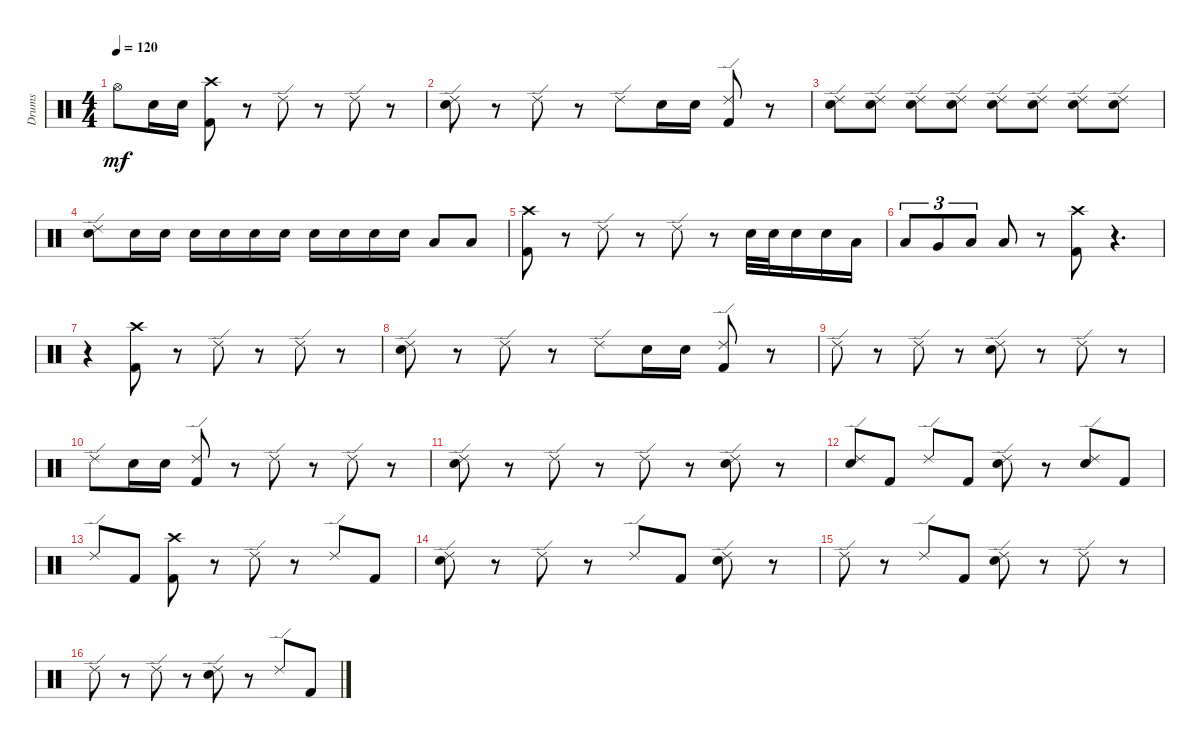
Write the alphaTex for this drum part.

\track ("Drums" "Drums") {instrument percussion}
\staff {score}
\articulation defaults
\ts (4 4)
\tempo 120
\clef neutral
\ks c "Hi-Hat (open)".8{dy mf} "Electric Snare (hit)".16 "Electric Snare (hit)".16
("Kick (hit) 2" "Crash high (hit)").8 r.8 "Ride (edge) 2".8 r.8 "Ride (edge) 2".8 r.8 |
("Electric Snare (hit)" "Ride (edge) 2").8 r.8 "Ride (edge) 2".8 r.8 "Ride (edge) 2".8 "Electric Snare (hit)".16 "Electric Snare (hit)".16 ("Kick (hit) 2" "Ride (edge) 2").8 r.8 |
("Electric Snare (hit)" "Ride (edge) 2").8 ("Electric Snare (hit)" "Ride (edge) 2").8 ("Electric Snare (hit)" "Ride (edge) 2").8 ("Electric Snare (hit)" "Ride (edge) 2").8 ("Electric Snare (hit)" "Ride (edge) 2").8 ("Electric Snare (hit)" "Ride (edge) 2").8 ("Electric Snare (hit)" "Ride (edge) 2").8 ("Electric Snare (hit)" "Ride (edge) 2").8 |
("Electric Snare (hit)" "Ride (edge) 2").8 "Electric Snare (hit)".16 "Electric Snare (hit)".16 "Electric Snare (hit)".16 "Electric Snare (hit)".16 "Electric Snare (hit)".16 "Electric Snare (hit)".16 "Electric Snare (hit)".16 "Electric Snare (hit)".16 "Electric Snare (hit)".16 "Electric Snare (hit)".16 "Low Tom (hit)".8 "Low Tom (hit)".8 |
("Kick (hit) 2" "Crash high (hit)").8 r.8 "Ride (edge) 2".8 r.8 "Ride (edge) 2".8 r.8 "Electric Snare (hit)".32 "Electric Snare (hit)".32 "Electric Snare (hit)".16 "Electric Snare (hit)".16 "Low Tom (hit)".16 |
"Low Tom (hit)".8{tu (3 2)} "Very Low Tom (hit)".8{tu (3 2)} "Low Floor Tom (hit)".8{tu (3 2)} "Low Floor Tom (hit)".8 r.8 ("Kick (hit) 2" "Crash high (hit)").8 r.4{d} |
r.4 ("Kick (hit) 2" "Crash high (hit)").8 r.8 "Ride (edge) 2".8 r.8 "Ride (edge) 2".8 r.8 |
("Electric Snare (hit)" "Ride (edge) 2").8 r.8 "Ride (edge) 2".8 r.8 "Ride (edge) 2".8 "Electric Snare (hit)".16 "Electric Snare (hit)".16 ("Kick (hit) 2" "Ride (edge) 2").8 r.8 |
"Ride (edge) 2".8 r.8 "Ride (edge) 2".8 r.8 ("Electric Snare (hit)" "Ride (edge) 2").8 r.8 "Ride (edge) 2".8 r.8 |
"Ride (edge) 2".8 "Electric Snare (hit)".16 "Electric Snare (hit)".16 ("Kick (hit) 2" "Ride (edge) 2").8 r.8 "Ride (edge) 2".8 r.8 "Ride (edge) 2".8 r.8 |
("Electric Snare (hit)" "Ride (edge) 2").8 r.8 "Ride (edge) 2".8 r.8 "Ride (edge) 2".8 r.8 ("Electric Snare (hit)" "Ride (edge) 2").8 r.8 |
("Electric Snare (hit)" "Ride (edge) 2").8 "Kick (hit) 2".8 "Ride (edge) 2".8 "Kick (hit) 2".8 ("Electric Snare (hit)" "Ride (edge) 2").8 r.8 ("Electric Snare (hit)" "Ride (edge) 2").8 "Kick (hit) 2".8 |
"Ride (edge) 2".8 "Kick (hit) 2".8 ("Kick (hit) 2" "Crash high (hit)").8 r.8 "Ride (edge) 2".8 r.8 "Ride (edge) 2".8 "Kick (hit) 2".8 |
("Electric Snare (hit)" "Ride (edge) 2").8 r.8 "Ride (edge) 2".8 r.8 "Ride (edge) 2".8 "Kick (hit) 2".8 ("Electric Snare (hit)" "Ride (edge) 2").8 r.8 |
"Ride (edge) 2".8 r.8 "Ride (edge) 2".8 "Kick (hit) 2".8 ("Electric Snare (hit)" "Ride (edge) 2").8 r.8 "Ride (edge) 2".8 r.8 |
"Ride (edge) 2".8 r.8 "Ride (edge) 2".8 r.8 ("Electric Snare (hit)" "Ride (edge) 2").8 r.8 "Ride (edge) 2".8 "Kick (hit) 2".8
